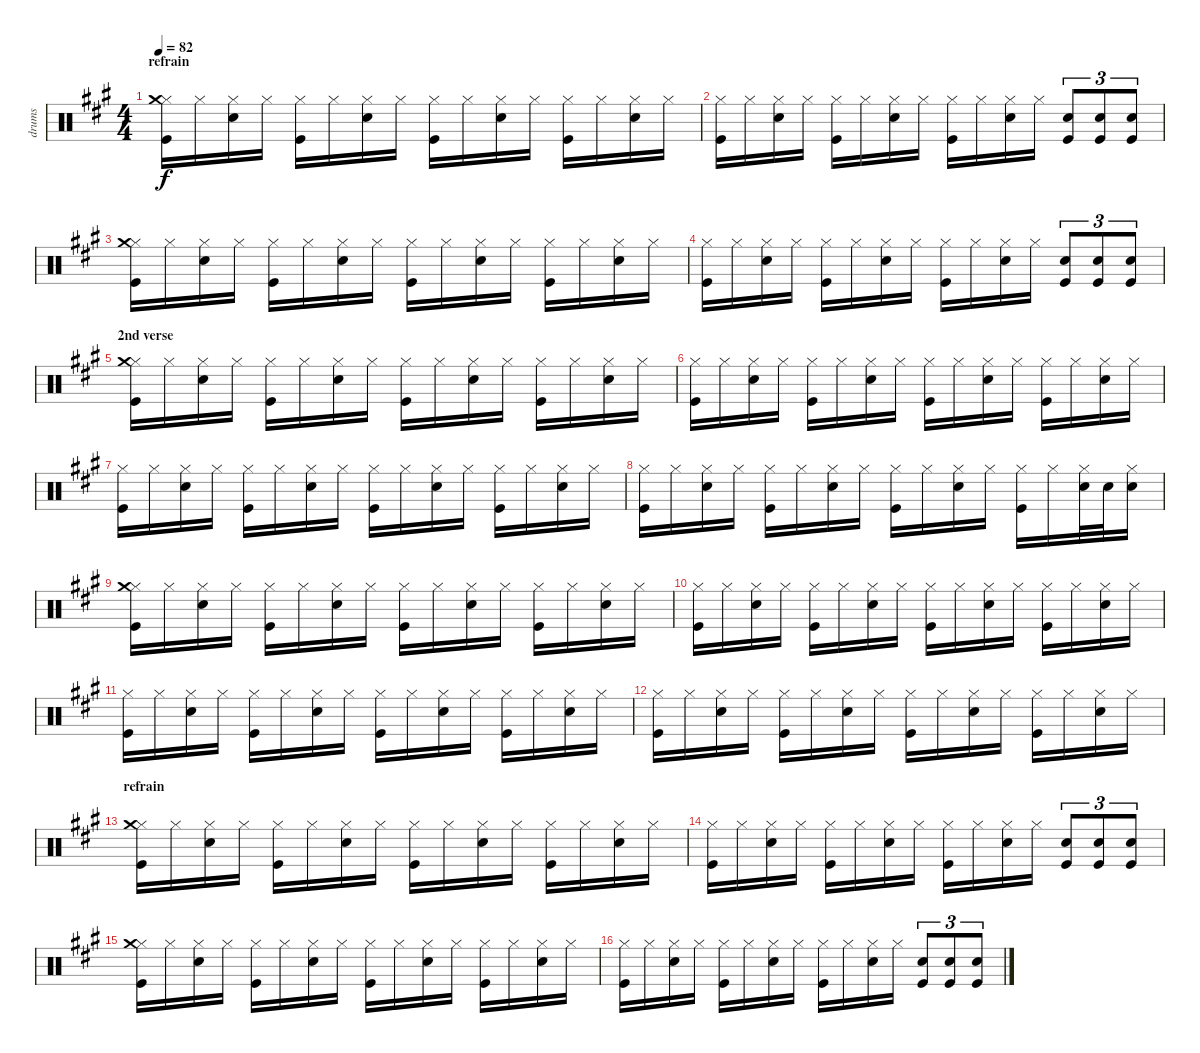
\track ("drums" "drums") {instrument percussion}
\staff {score}
\articulation defaults
\ts (4 4)
\section ("" "refrain")
\tempo 82
\clef neutral
\ks a
("Hi-Hat (closed)" "Crash medium (hit)" "Kick (hit)").16{dy f} "Hi-Hat (closed)".16 ("Hi-Hat (closed)" "Snare (hit) 2").16 "Hi-Hat (closed)".16 ("Hi-Hat (closed)" "Kick (hit)").16 "Hi-Hat (closed)".16 ("Hi-Hat (closed)" "Snare (hit) 2").16 "Hi-Hat (closed)".16 ("Hi-Hat (closed)" "Kick (hit)").16 "Hi-Hat (closed)".16 ("Hi-Hat (closed)" "Snare (hit) 2").16 "Hi-Hat (closed)".16 ("Hi-Hat (closed)" "Kick (hit)").16 "Hi-Hat (closed)".16 ("Hi-Hat (closed)" "Snare (hit) 2").16 "Hi-Hat (closed)".16 |
("Hi-Hat (closed)" "Kick (hit)").16 "Hi-Hat (closed)".16 ("Hi-Hat (closed)" "Snare (hit) 2").16 "Hi-Hat (closed)".16 ("Hi-Hat (closed)" "Kick (hit)").16 "Hi-Hat (closed)".16 ("Hi-Hat (closed)" "Snare (hit) 2").16 "Hi-Hat (closed)".16 ("Hi-Hat (closed)" "Kick (hit)").16 "Hi-Hat (closed)".16 ("Hi-Hat (closed)" "Snare (hit) 2").16 "Hi-Hat (closed)".16 ("Snare (hit) 2" "Kick (hit)").8{tu (3 2)} ("Snare (hit) 2" "Kick (hit)").8{tu (3 2)} ("Snare (hit) 2" "Kick (hit)").8{tu (3 2)} |
("Hi-Hat (closed)" "Crash medium (hit)" "Kick (hit)").16 "Hi-Hat (closed)".16 ("Hi-Hat (closed)" "Snare (hit) 2").16 "Hi-Hat (closed)".16 ("Hi-Hat (closed)" "Kick (hit)").16 "Hi-Hat (closed)".16 ("Hi-Hat (closed)" "Snare (hit) 2").16 "Hi-Hat (closed)".16 ("Hi-Hat (closed)" "Kick (hit)").16 "Hi-Hat (closed)".16 ("Hi-Hat (closed)" "Snare (hit) 2").16 "Hi-Hat (closed)".16 ("Hi-Hat (closed)" "Kick (hit)").16 "Hi-Hat (closed)".16 ("Hi-Hat (closed)" "Snare (hit) 2").16 "Hi-Hat (closed)".16 |
("Hi-Hat (closed)" "Kick (hit)").16 "Hi-Hat (closed)".16 ("Hi-Hat (closed)" "Snare (hit) 2").16 "Hi-Hat (closed)".16 ("Hi-Hat (closed)" "Kick (hit)").16 "Hi-Hat (closed)".16 ("Hi-Hat (closed)" "Snare (hit) 2").16 "Hi-Hat (closed)".16 ("Hi-Hat (closed)" "Kick (hit)").16 "Hi-Hat (closed)".16 ("Hi-Hat (closed)" "Snare (hit) 2").16 "Hi-Hat (closed)".16 ("Snare (hit) 2" "Kick (hit)").8{tu (3 2)} ("Snare (hit) 2" "Kick (hit)").8{tu (3 2)} ("Snare (hit) 2" "Kick (hit)").8{tu (3 2)} |
\section ("" "2nd verse")
("Hi-Hat (closed)" "Crash medium (hit)" "Kick (hit)").16 "Hi-Hat (closed)".16 ("Hi-Hat (closed)" "Snare (hit) 2").16 "Hi-Hat (closed)".16 ("Hi-Hat (closed)" "Kick (hit)").16 "Hi-Hat (closed)".16 ("Hi-Hat (closed)" "Snare (hit) 2").16 "Hi-Hat (closed)".16 ("Hi-Hat (closed)" "Kick (hit)").16 "Hi-Hat (closed)".16 ("Hi-Hat (closed)" "Snare (hit) 2").16 "Hi-Hat (closed)".16 ("Hi-Hat (closed)" "Kick (hit)").16 "Hi-Hat (closed)".16 ("Hi-Hat (closed)" "Snare (hit) 2").16 "Hi-Hat (closed)".16 |
("Hi-Hat (closed)" "Kick (hit)").16 "Hi-Hat (closed)".16 ("Hi-Hat (closed)" "Snare (hit) 2").16 "Hi-Hat (closed)".16 ("Hi-Hat (closed)" "Kick (hit)").16 "Hi-Hat (closed)".16 ("Hi-Hat (closed)" "Snare (hit) 2").16 "Hi-Hat (closed)".16 ("Hi-Hat (closed)" "Kick (hit)").16 "Hi-Hat (closed)".16 ("Hi-Hat (closed)" "Snare (hit) 2").16 "Hi-Hat (closed)".16 ("Hi-Hat (closed)" "Kick (hit)").16 "Hi-Hat (closed)".16 ("Hi-Hat (closed)" "Snare (hit) 2").16 "Hi-Hat (closed)".16 |
("Hi-Hat (closed)" "Kick (hit)").16 "Hi-Hat (closed)".16 ("Hi-Hat (closed)" "Snare (hit) 2").16 "Hi-Hat (closed)".16 ("Hi-Hat (closed)" "Kick (hit)").16 "Hi-Hat (closed)".16 ("Hi-Hat (closed)" "Snare (hit) 2").16 "Hi-Hat (closed)".16 ("Hi-Hat (closed)" "Kick (hit)").16 "Hi-Hat (closed)".16 ("Hi-Hat (closed)" "Snare (hit) 2").16 "Hi-Hat (closed)".16 ("Hi-Hat (closed)" "Kick (hit)").16 "Hi-Hat (closed)".16 ("Hi-Hat (closed)" "Snare (hit) 2").16 "Hi-Hat (closed)".16 |
("Hi-Hat (closed)" "Kick (hit)").16 "Hi-Hat (closed)".16 ("Hi-Hat (closed)" "Snare (hit) 2").16 "Hi-Hat (closed)".16 ("Hi-Hat (closed)" "Kick (hit)").16 "Hi-Hat (closed)".16 ("Hi-Hat (closed)" "Snare (hit) 2").16 "Hi-Hat (closed)".16 ("Hi-Hat (closed)" "Kick (hit)").16 "Hi-Hat (closed)".16 ("Hi-Hat (closed)" "Snare (hit) 2").16 "Hi-Hat (closed)".16 ("Hi-Hat (closed)" "Kick (hit)").16 "Hi-Hat (closed)".16 ("Hi-Hat (closed)" "Snare (hit) 2").32 "Snare (hit) 2".32 ("Hi-Hat (closed)" "Snare (hit) 2").16 |
("Hi-Hat (closed)" "Crash medium (hit)" "Kick (hit)").16 "Hi-Hat (closed)".16 ("Hi-Hat (closed)" "Snare (hit) 2").16 "Hi-Hat (closed)".16 ("Hi-Hat (closed)" "Kick (hit)").16 "Hi-Hat (closed)".16 ("Hi-Hat (closed)" "Snare (hit) 2").16 "Hi-Hat (closed)".16 ("Hi-Hat (closed)" "Kick (hit)").16 "Hi-Hat (closed)".16 ("Hi-Hat (closed)" "Snare (hit) 2").16 "Hi-Hat (closed)".16 ("Hi-Hat (closed)" "Kick (hit)").16 "Hi-Hat (closed)".16 ("Hi-Hat (closed)" "Snare (hit) 2").16 "Hi-Hat (closed)".16 |
("Hi-Hat (closed)" "Kick (hit)").16 "Hi-Hat (closed)".16 ("Hi-Hat (closed)" "Snare (hit) 2").16 "Hi-Hat (closed)".16 ("Hi-Hat (closed)" "Kick (hit)").16 "Hi-Hat (closed)".16 ("Hi-Hat (closed)" "Snare (hit) 2").16 "Hi-Hat (closed)".16 ("Hi-Hat (closed)" "Kick (hit)").16 "Hi-Hat (closed)".16 ("Hi-Hat (closed)" "Snare (hit) 2").16 "Hi-Hat (closed)".16 ("Hi-Hat (closed)" "Kick (hit)").16 "Hi-Hat (closed)".16 ("Hi-Hat (closed)" "Snare (hit) 2").16 "Hi-Hat (closed)".16 |
("Hi-Hat (closed)" "Kick (hit)").16 "Hi-Hat (closed)".16 ("Hi-Hat (closed)" "Snare (hit) 2").16 "Hi-Hat (closed)".16 ("Hi-Hat (closed)" "Kick (hit)").16 "Hi-Hat (closed)".16 ("Hi-Hat (closed)" "Snare (hit) 2").16 "Hi-Hat (closed)".16 ("Hi-Hat (closed)" "Kick (hit)").16 "Hi-Hat (closed)".16 ("Hi-Hat (closed)" "Snare (hit) 2").16 "Hi-Hat (closed)".16 ("Hi-Hat (closed)" "Kick (hit)").16 "Hi-Hat (closed)".16 ("Hi-Hat (closed)" "Snare (hit) 2").16 "Hi-Hat (closed)".16 |
("Hi-Hat (closed)" "Kick (hit)").16 "Hi-Hat (closed)".16 ("Hi-Hat (closed)" "Snare (hit) 2").16 "Hi-Hat (closed)".16 ("Hi-Hat (closed)" "Kick (hit)").16 "Hi-Hat (closed)".16 ("Hi-Hat (closed)" "Snare (hit) 2").16 "Hi-Hat (closed)".16 ("Hi-Hat (closed)" "Kick (hit)").16 "Hi-Hat (closed)".16 ("Hi-Hat (closed)" "Snare (hit) 2").16 "Hi-Hat (closed)".16 ("Hi-Hat (closed)" "Kick (hit)").16 "Hi-Hat (closed)".16 ("Hi-Hat (closed)" "Snare (hit) 2").16 "Hi-Hat (closed)".16 |
\section ("" "refrain")
("Hi-Hat (closed)" "Crash medium (hit)" "Kick (hit)").16 "Hi-Hat (closed)".16 ("Hi-Hat (closed)" "Snare (hit) 2").16 "Hi-Hat (closed)".16 ("Hi-Hat (closed)" "Kick (hit)").16 "Hi-Hat (closed)".16 ("Hi-Hat (closed)" "Snare (hit) 2").16 "Hi-Hat (closed)".16 ("Hi-Hat (closed)" "Kick (hit)").16 "Hi-Hat (closed)".16 ("Hi-Hat (closed)" "Snare (hit) 2").16 "Hi-Hat (closed)".16 ("Hi-Hat (closed)" "Kick (hit)").16 "Hi-Hat (closed)".16 ("Hi-Hat (closed)" "Snare (hit) 2").16 "Hi-Hat (closed)".16 |
("Hi-Hat (closed)" "Kick (hit)").16 "Hi-Hat (closed)".16 ("Hi-Hat (closed)" "Snare (hit) 2").16 "Hi-Hat (closed)".16 ("Hi-Hat (closed)" "Kick (hit)").16 "Hi-Hat (closed)".16 ("Hi-Hat (closed)" "Snare (hit) 2").16 "Hi-Hat (closed)".16 ("Hi-Hat (closed)" "Kick (hit)").16 "Hi-Hat (closed)".16 ("Hi-Hat (closed)" "Snare (hit) 2").16 "Hi-Hat (closed)".16 ("Snare (hit) 2" "Kick (hit)").8{tu (3 2)} ("Snare (hit) 2" "Kick (hit)").8{tu (3 2)} ("Snare (hit) 2" "Kick (hit)").8{tu (3 2)} |
("Hi-Hat (closed)" "Crash medium (hit)" "Kick (hit)").16 "Hi-Hat (closed)".16 ("Hi-Hat (closed)" "Snare (hit) 2").16 "Hi-Hat (closed)".16 ("Hi-Hat (closed)" "Kick (hit)").16 "Hi-Hat (closed)".16 ("Hi-Hat (closed)" "Snare (hit) 2").16 "Hi-Hat (closed)".16 ("Hi-Hat (closed)" "Kick (hit)").16 "Hi-Hat (closed)".16 ("Hi-Hat (closed)" "Snare (hit) 2").16 "Hi-Hat (closed)".16 ("Hi-Hat (closed)" "Kick (hit)").16 "Hi-Hat (closed)".16 ("Hi-Hat (closed)" "Snare (hit) 2").16 "Hi-Hat (closed)".16 |
("Hi-Hat (closed)" "Kick (hit)").16 "Hi-Hat (closed)".16 ("Hi-Hat (closed)" "Snare (hit) 2").16 "Hi-Hat (closed)".16 ("Hi-Hat (closed)" "Kick (hit)").16 "Hi-Hat (closed)".16 ("Hi-Hat (closed)" "Snare (hit) 2").16 "Hi-Hat (closed)".16 ("Hi-Hat (closed)" "Kick (hit)").16 "Hi-Hat (closed)".16 ("Hi-Hat (closed)" "Snare (hit) 2").16 "Hi-Hat (closed)".16 ("Snare (hit) 2" "Kick (hit)").8{tu (3 2)} ("Snare (hit) 2" "Kick (hit)").8{tu (3 2)} ("Snare (hit) 2" "Kick (hit)").8{tu (3 2)}
